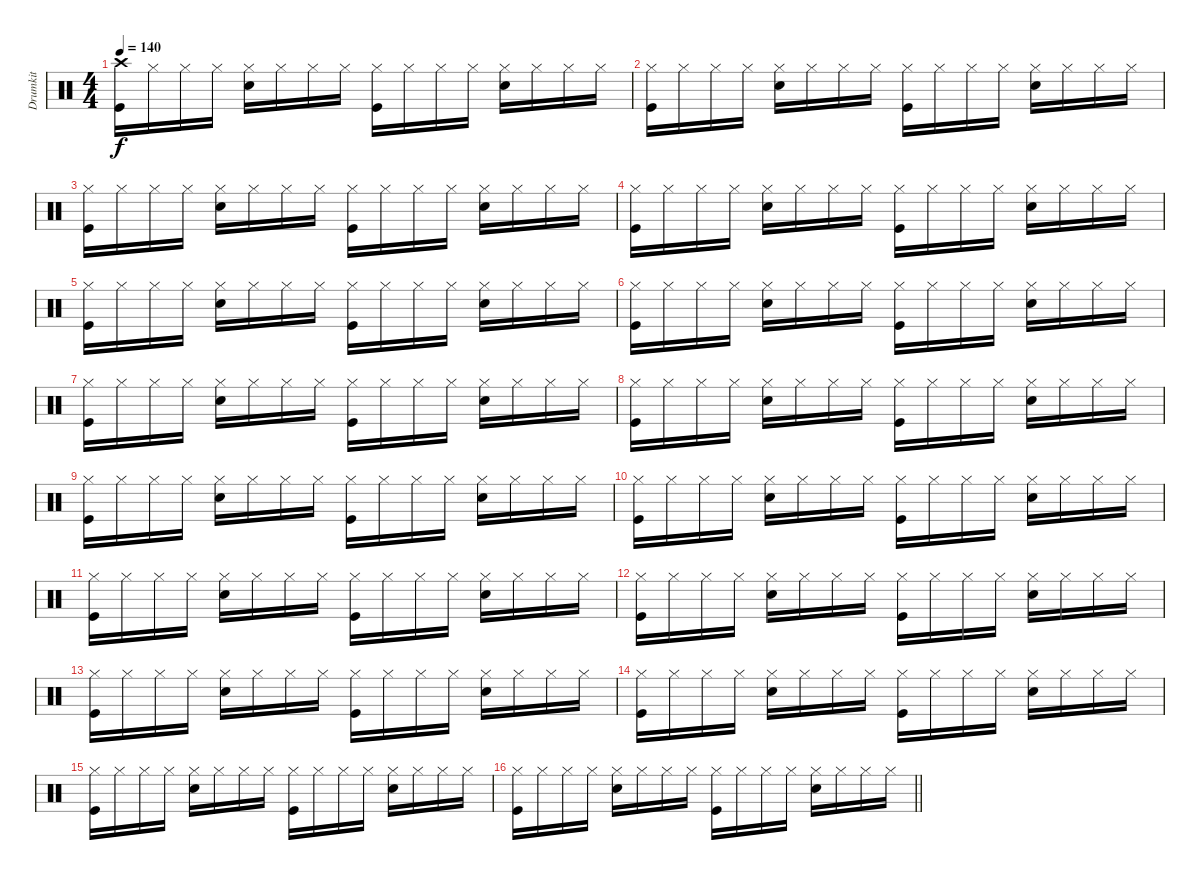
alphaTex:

\track ("Drumkit" "Drumkit") {instrument percussion}
\staff {score}
\articulation defaults
\ts (4 4)
\tempo 140
\clef neutral
\ks c
("Crash high (hit)" "Kick (hit)").16{dy f} "Hi-Hat (closed)".16 "Hi-Hat (closed)".16 "Hi-Hat (closed)".16 ("Hi-Hat (closed)" "Snare (hit) 2").16 "Hi-Hat (closed)".16 "Hi-Hat (closed)".16 "Hi-Hat (closed)".16 ("Hi-Hat (closed)" "Kick (hit)").16 "Hi-Hat (closed)".16 "Hi-Hat (closed)".16 "Hi-Hat (closed)".16 ("Hi-Hat (closed)" "Snare (hit) 2").16 "Hi-Hat (closed)".16 "Hi-Hat (closed)".16 "Hi-Hat (closed)".16 |
("Hi-Hat (closed)" "Kick (hit)").16 "Hi-Hat (closed)".16 "Hi-Hat (closed)".16 "Hi-Hat (closed)".16 ("Hi-Hat (closed)" "Snare (hit) 2").16 "Hi-Hat (closed)".16 "Hi-Hat (closed)".16 "Hi-Hat (closed)".16 ("Hi-Hat (closed)" "Kick (hit)").16 "Hi-Hat (closed)".16 "Hi-Hat (closed)".16 "Hi-Hat (closed)".16 ("Hi-Hat (closed)" "Snare (hit) 2").16 "Hi-Hat (closed)".16 "Hi-Hat (closed)".16 "Hi-Hat (closed)".16 |
("Hi-Hat (closed)" "Kick (hit)").16 "Hi-Hat (closed)".16 "Hi-Hat (closed)".16 "Hi-Hat (closed)".16 ("Hi-Hat (closed)" "Snare (hit) 2").16 "Hi-Hat (closed)".16 "Hi-Hat (closed)".16 "Hi-Hat (closed)".16 ("Hi-Hat (closed)" "Kick (hit)").16 "Hi-Hat (closed)".16 "Hi-Hat (closed)".16 "Hi-Hat (closed)".16 ("Hi-Hat (closed)" "Snare (hit) 2").16 "Hi-Hat (closed)".16 "Hi-Hat (closed)".16 "Hi-Hat (closed)".16 |
("Hi-Hat (closed)" "Kick (hit)").16 "Hi-Hat (closed)".16 "Hi-Hat (closed)".16 "Hi-Hat (closed)".16 ("Hi-Hat (closed)" "Snare (hit) 2").16 "Hi-Hat (closed)".16 "Hi-Hat (closed)".16 "Hi-Hat (closed)".16 ("Hi-Hat (closed)" "Kick (hit)").16 "Hi-Hat (closed)".16 "Hi-Hat (closed)".16 "Hi-Hat (closed)".16 ("Hi-Hat (closed)" "Snare (hit) 2").16 "Hi-Hat (closed)".16 "Hi-Hat (closed)".16 "Hi-Hat (closed)".16 |
("Hi-Hat (closed)" "Kick (hit)").16 "Hi-Hat (closed)".16 "Hi-Hat (closed)".16 "Hi-Hat (closed)".16 ("Hi-Hat (closed)" "Snare (hit) 2").16 "Hi-Hat (closed)".16 "Hi-Hat (closed)".16 "Hi-Hat (closed)".16 ("Hi-Hat (closed)" "Kick (hit)").16 "Hi-Hat (closed)".16 "Hi-Hat (closed)".16 "Hi-Hat (closed)".16 ("Hi-Hat (closed)" "Snare (hit) 2").16 "Hi-Hat (closed)".16 "Hi-Hat (closed)".16 "Hi-Hat (closed)".16 |
("Hi-Hat (closed)" "Kick (hit)").16 "Hi-Hat (closed)".16 "Hi-Hat (closed)".16 "Hi-Hat (closed)".16 ("Hi-Hat (closed)" "Snare (hit) 2").16 "Hi-Hat (closed)".16 "Hi-Hat (closed)".16 "Hi-Hat (closed)".16 ("Hi-Hat (closed)" "Kick (hit)").16 "Hi-Hat (closed)".16 "Hi-Hat (closed)".16 "Hi-Hat (closed)".16 ("Hi-Hat (closed)" "Snare (hit) 2").16 "Hi-Hat (closed)".16 "Hi-Hat (closed)".16 "Hi-Hat (closed)".16 |
("Hi-Hat (closed)" "Kick (hit)").16 "Hi-Hat (closed)".16 "Hi-Hat (closed)".16 "Hi-Hat (closed)".16 ("Hi-Hat (closed)" "Snare (hit) 2").16 "Hi-Hat (closed)".16 "Hi-Hat (closed)".16 "Hi-Hat (closed)".16 ("Hi-Hat (closed)" "Kick (hit)").16 "Hi-Hat (closed)".16 "Hi-Hat (closed)".16 "Hi-Hat (closed)".16 ("Hi-Hat (closed)" "Snare (hit) 2").16 "Hi-Hat (closed)".16 "Hi-Hat (closed)".16 "Hi-Hat (closed)".16 |
("Hi-Hat (closed)" "Kick (hit)").16 "Hi-Hat (closed)".16 "Hi-Hat (closed)".16 "Hi-Hat (closed)".16 ("Hi-Hat (closed)" "Snare (hit) 2").16 "Hi-Hat (closed)".16 "Hi-Hat (closed)".16 "Hi-Hat (closed)".16 ("Hi-Hat (closed)" "Kick (hit)").16 "Hi-Hat (closed)".16 "Hi-Hat (closed)".16 "Hi-Hat (closed)".16 ("Hi-Hat (closed)" "Snare (hit) 2").16 "Hi-Hat (closed)".16 "Hi-Hat (closed)".16 "Hi-Hat (closed)".16 |
("Hi-Hat (closed)" "Kick (hit)").16 "Hi-Hat (closed)".16 "Hi-Hat (closed)".16 "Hi-Hat (closed)".16 ("Hi-Hat (closed)" "Snare (hit) 2").16 "Hi-Hat (closed)".16 "Hi-Hat (closed)".16 "Hi-Hat (closed)".16 ("Hi-Hat (closed)" "Kick (hit)").16 "Hi-Hat (closed)".16 "Hi-Hat (closed)".16 "Hi-Hat (closed)".16 ("Hi-Hat (closed)" "Snare (hit) 2").16 "Hi-Hat (closed)".16 "Hi-Hat (closed)".16 "Hi-Hat (closed)".16 |
("Hi-Hat (closed)" "Kick (hit)").16 "Hi-Hat (closed)".16 "Hi-Hat (closed)".16 "Hi-Hat (closed)".16 ("Hi-Hat (closed)" "Snare (hit) 2").16 "Hi-Hat (closed)".16 "Hi-Hat (closed)".16 "Hi-Hat (closed)".16 ("Hi-Hat (closed)" "Kick (hit)").16 "Hi-Hat (closed)".16 "Hi-Hat (closed)".16 "Hi-Hat (closed)".16 ("Hi-Hat (closed)" "Snare (hit) 2").16 "Hi-Hat (closed)".16 "Hi-Hat (closed)".16 "Hi-Hat (closed)".16 |
("Hi-Hat (closed)" "Kick (hit)").16 "Hi-Hat (closed)".16 "Hi-Hat (closed)".16 "Hi-Hat (closed)".16 ("Hi-Hat (closed)" "Snare (hit) 2").16 "Hi-Hat (closed)".16 "Hi-Hat (closed)".16 "Hi-Hat (closed)".16 ("Hi-Hat (closed)" "Kick (hit)").16 "Hi-Hat (closed)".16 "Hi-Hat (closed)".16 "Hi-Hat (closed)".16 ("Hi-Hat (closed)" "Snare (hit) 2").16 "Hi-Hat (closed)".16 "Hi-Hat (closed)".16 "Hi-Hat (closed)".16 |
("Hi-Hat (closed)" "Kick (hit)").16 "Hi-Hat (closed)".16 "Hi-Hat (closed)".16 "Hi-Hat (closed)".16 ("Hi-Hat (closed)" "Snare (hit) 2").16 "Hi-Hat (closed)".16 "Hi-Hat (closed)".16 "Hi-Hat (closed)".16 ("Hi-Hat (closed)" "Kick (hit)").16 "Hi-Hat (closed)".16 "Hi-Hat (closed)".16 "Hi-Hat (closed)".16 ("Hi-Hat (closed)" "Snare (hit) 2").16 "Hi-Hat (closed)".16 "Hi-Hat (closed)".16 "Hi-Hat (closed)".16 |
("Hi-Hat (closed)" "Kick (hit)").16 "Hi-Hat (closed)".16 "Hi-Hat (closed)".16 "Hi-Hat (closed)".16 ("Hi-Hat (closed)" "Snare (hit) 2").16 "Hi-Hat (closed)".16 "Hi-Hat (closed)".16 "Hi-Hat (closed)".16 ("Hi-Hat (closed)" "Kick (hit)").16 "Hi-Hat (closed)".16 "Hi-Hat (closed)".16 "Hi-Hat (closed)".16 ("Hi-Hat (closed)" "Snare (hit) 2").16 "Hi-Hat (closed)".16 "Hi-Hat (closed)".16 "Hi-Hat (closed)".16 |
("Hi-Hat (closed)" "Kick (hit)").16 "Hi-Hat (closed)".16 "Hi-Hat (closed)".16 "Hi-Hat (closed)".16 ("Hi-Hat (closed)" "Snare (hit) 2").16 "Hi-Hat (closed)".16 "Hi-Hat (closed)".16 "Hi-Hat (closed)".16 ("Hi-Hat (closed)" "Kick (hit)").16 "Hi-Hat (closed)".16 "Hi-Hat (closed)".16 "Hi-Hat (closed)".16 ("Hi-Hat (closed)" "Snare (hit) 2").16 "Hi-Hat (closed)".16 "Hi-Hat (closed)".16 "Hi-Hat (closed)".16 |
("Hi-Hat (closed)" "Kick (hit)").16 "Hi-Hat (closed)".16 "Hi-Hat (closed)".16 "Hi-Hat (closed)".16 ("Hi-Hat (closed)" "Snare (hit) 2").16 "Hi-Hat (closed)".16 "Hi-Hat (closed)".16 "Hi-Hat (closed)".16 ("Hi-Hat (closed)" "Kick (hit)").16 "Hi-Hat (closed)".16 "Hi-Hat (closed)".16 "Hi-Hat (closed)".16 ("Hi-Hat (closed)" "Snare (hit) 2").16 "Hi-Hat (closed)".16 "Hi-Hat (closed)".16 "Hi-Hat (closed)".16 |
\barLineRight lightlight
("Hi-Hat (closed)" "Kick (hit)").16 "Hi-Hat (closed)".16 "Hi-Hat (closed)".16 "Hi-Hat (closed)".16 ("Hi-Hat (closed)" "Snare (hit) 2").16 "Hi-Hat (closed)".16 "Hi-Hat (closed)".16 "Hi-Hat (closed)".16 ("Hi-Hat (closed)" "Kick (hit)").16 "Hi-Hat (closed)".16 "Hi-Hat (closed)".16 "Hi-Hat (closed)".16 ("Hi-Hat (closed)" "Snare (hit) 2").16 "Hi-Hat (closed)".16 "Hi-Hat (closed)".16 "Hi-Hat (closed)".16
